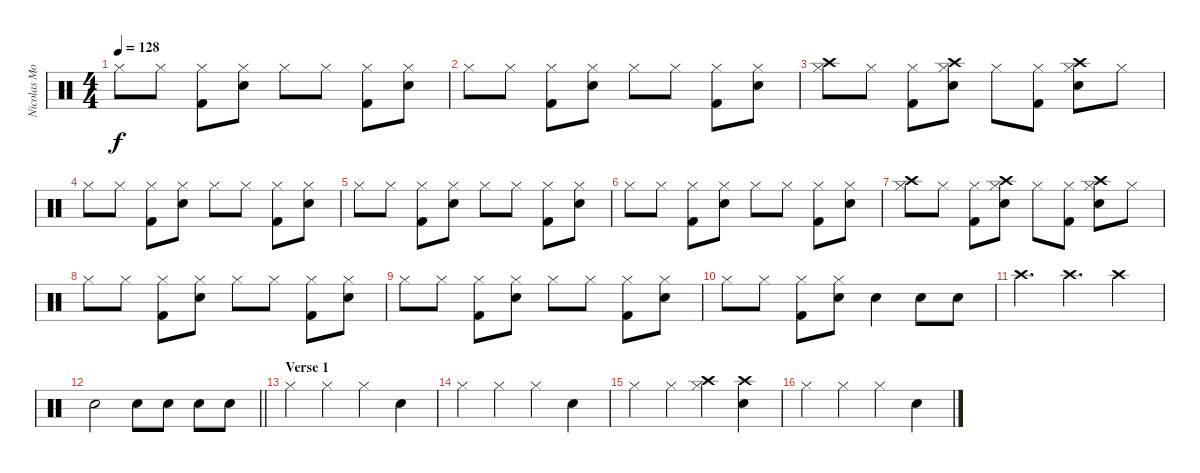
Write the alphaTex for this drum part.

\track ("Nicolas Mosquera" "Nicolas Mo") {mute instrument percussion}
\staff {score}
\articulation defaults
\ts (4 4)
\tempo 128
\clef neutral
\ks c "Hi-Hat (closed)".8{dy f} "Hi-Hat (closed)".8
("Hi-Hat (closed)" "Kick (hit) 2").8 ("Hi-Hat (closed)" "Snare (hit) 2").8 "Hi-Hat (closed)".8 "Hi-Hat (closed)".8 ("Hi-Hat (closed)" "Kick (hit) 2").8 ("Hi-Hat (closed)" "Snare (hit) 2").8 |
"Hi-Hat (closed)".8 "Hi-Hat (closed)".8 ("Hi-Hat (closed)" "Kick (hit) 2").8 ("Hi-Hat (closed)" "Snare (hit) 2").8 "Hi-Hat (closed)".8 "Hi-Hat (closed)".8 ("Hi-Hat (closed)" "Kick (hit) 2").8 ("Hi-Hat (closed)" "Snare (hit) 2").8 |
("Hi-Hat (closed)" "Crash high (hit)").8 "Hi-Hat (closed)".8 ("Hi-Hat (closed)" "Kick (hit) 2").8 ("Hi-Hat (closed)" "Snare (hit) 2" "Crash high (hit)").8 "Hi-Hat (closed)".8 ("Hi-Hat (closed)" "Kick (hit) 2").8 ("Hi-Hat (closed)" "Snare (hit) 2" "Crash high (hit)").8 "Hi-Hat (closed)".8 |
"Hi-Hat (closed)".8 "Hi-Hat (closed)".8 ("Hi-Hat (closed)" "Kick (hit) 2").8 ("Hi-Hat (closed)" "Snare (hit) 2").8 "Hi-Hat (closed)".8 "Hi-Hat (closed)".8 ("Hi-Hat (closed)" "Kick (hit) 2").8 ("Hi-Hat (closed)" "Snare (hit) 2").8 |
"Hi-Hat (closed)".8 "Hi-Hat (closed)".8 ("Hi-Hat (closed)" "Kick (hit) 2").8 ("Hi-Hat (closed)" "Snare (hit) 2").8 "Hi-Hat (closed)".8 "Hi-Hat (closed)".8 ("Hi-Hat (closed)" "Kick (hit) 2").8 ("Hi-Hat (closed)" "Snare (hit) 2").8 |
"Hi-Hat (closed)".8 "Hi-Hat (closed)".8 ("Hi-Hat (closed)" "Kick (hit) 2").8 ("Hi-Hat (closed)" "Snare (hit) 2").8 "Hi-Hat (closed)".8 "Hi-Hat (closed)".8 ("Hi-Hat (closed)" "Kick (hit) 2").8 ("Hi-Hat (closed)" "Snare (hit) 2").8 |
("Hi-Hat (closed)" "Crash high (hit)").8 "Hi-Hat (closed)".8 ("Hi-Hat (closed)" "Kick (hit) 2").8 ("Hi-Hat (closed)" "Snare (hit) 2" "Crash high (hit)").8 "Hi-Hat (closed)".8 ("Hi-Hat (closed)" "Kick (hit) 2").8 ("Hi-Hat (closed)" "Snare (hit) 2" "Crash high (hit)").8 "Hi-Hat (closed)".8 |
"Hi-Hat (closed)".8 "Hi-Hat (closed)".8 ("Hi-Hat (closed)" "Kick (hit) 2").8 ("Hi-Hat (closed)" "Snare (hit) 2").8 "Hi-Hat (closed)".8 "Hi-Hat (closed)".8 ("Hi-Hat (closed)" "Kick (hit) 2").8 ("Hi-Hat (closed)" "Snare (hit) 2").8 |
"Hi-Hat (closed)".8 "Hi-Hat (closed)".8 ("Hi-Hat (closed)" "Kick (hit) 2").8 ("Hi-Hat (closed)" "Snare (hit) 2").8 "Hi-Hat (closed)".8 "Hi-Hat (closed)".8 ("Hi-Hat (closed)" "Kick (hit) 2").8 ("Hi-Hat (closed)" "Snare (hit) 2").8 |
"Hi-Hat (closed)".8 "Hi-Hat (closed)".8 ("Hi-Hat (closed)" "Kick (hit) 2").8 ("Hi-Hat (closed)" "Snare (hit) 2").8 "Snare (hit) 2".4 "Snare (hit) 2".8 "Snare (hit) 2".8 |
"Crash high (hit)".4{d} "Crash high (hit)".4{d} "Crash high (hit)".4 |
\barLineRight lightlight "Snare (hit) 2".2 "Snare (hit) 2".8 "Snare (hit) 2".8 "Snare (hit) 2".8 "Snare (hit) 2".8
|
\section ("" "Verse 1")
"Hi-Hat (closed)".4 "Hi-Hat (closed)".4 "Hi-Hat (closed)".4 "Snare (hit) 2".4 |
"Hi-Hat (closed)".4 "Hi-Hat (closed)".4 "Hi-Hat (closed)".4 "Snare (hit) 2".4 |
"Hi-Hat (closed)".4 "Hi-Hat (closed)".4 ("Hi-Hat (closed)" "Crash high (hit)").4 ("Snare (hit) 2" "Crash high (hit)").4 |
"Hi-Hat (closed)".4 "Hi-Hat (closed)".4 "Hi-Hat (closed)".4 "Snare (hit) 2".4
